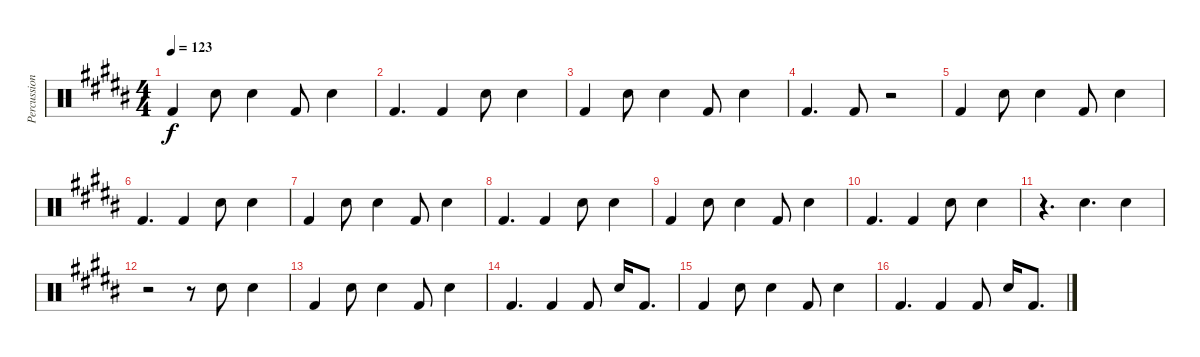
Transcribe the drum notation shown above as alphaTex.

\track ("Percussion" "Percussion") {instrument percussion}
\staff {score}
\articulation defaults
\ts (4 4)
\tempo 123
\clef neutral
\ks g#minor "Kick (hit) 2".4{dy f} "Hand Clap (hit)".8 "Hand Clap (hit)".4 "Kick (hit) 2".8 "Hand Clap (hit)".4
|
"Kick (hit) 2".4{d} "Kick (hit) 2".4 "Hand Clap (hit)".8 "Hand Clap (hit)".4 |
"Kick (hit) 2".4 "Hand Clap (hit)".8 "Hand Clap (hit)".4 "Kick (hit) 2".8 "Hand Clap (hit)".4 |
"Kick (hit) 2".4{d} "Kick (hit) 2".8 r.2 |
"Kick (hit) 2".4 "Hand Clap (hit)".8 "Hand Clap (hit)".4 "Kick (hit) 2".8 "Hand Clap (hit)".4 |
"Kick (hit) 2".4{d} "Kick (hit) 2".4 "Hand Clap (hit)".8 "Hand Clap (hit)".4 |
"Kick (hit) 2".4 "Hand Clap (hit)".8 "Hand Clap (hit)".4 "Kick (hit) 2".8 "Hand Clap (hit)".4 |
"Kick (hit) 2".4{d} "Kick (hit) 2".4 "Hand Clap (hit)".8 "Hand Clap (hit)".4 |
"Kick (hit) 2".4 "Hand Clap (hit)".8 "Hand Clap (hit)".4 "Kick (hit) 2".8 "Hand Clap (hit)".4 |
"Kick (hit) 2".4{d} "Kick (hit) 2".4 "Hand Clap (hit)".8 "Hand Clap (hit)".4 |
r.4{d} "Hand Clap (hit)".4{d} "Hand Clap (hit)".4 |
r.2 r.8 "Hand Clap (hit)".8 "Hand Clap (hit)".4 |
"Kick (hit) 2".4 "Hand Clap (hit)".8 "Hand Clap (hit)".4 "Kick (hit) 2".8 "Hand Clap (hit)".4 |
"Kick (hit) 2".4{d} "Kick (hit) 2".4 "Kick (hit) 2".8 "Hand Clap (hit)".16 "Kick (hit) 2".8{d} |
"Kick (hit) 2".4 "Hand Clap (hit)".8 "Hand Clap (hit)".4 "Kick (hit) 2".8 "Hand Clap (hit)".4 |
"Kick (hit) 2".4{d} "Kick (hit) 2".4 "Kick (hit) 2".8 "Hand Clap (hit)".16 "Kick (hit) 2".8{d}
